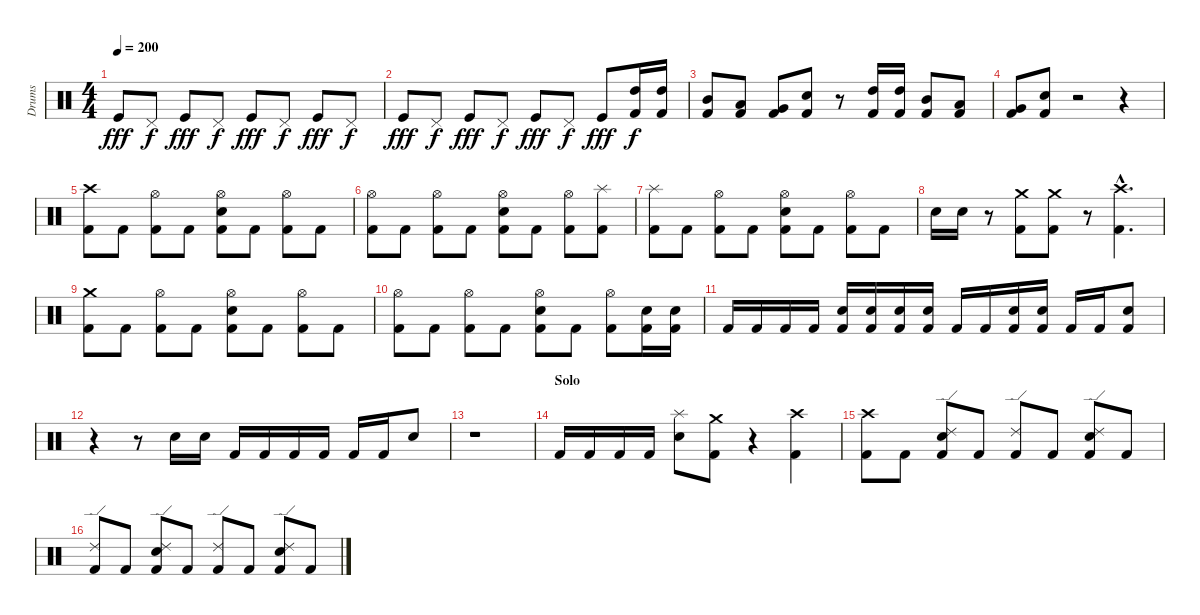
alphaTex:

\track ("Drums" "Drums") {instrument percussion}
\staff {score}
\articulation defaults
\ts (4 4)
\tempo 200
\clef neutral
\ks c "Kick (hit)".8{dy fff} "Pedal Hi-Hat (hit)".8{dy f} "Kick (hit)".8{dy fff} "Pedal Hi-Hat (hit)".8{dy f} "Kick (hit)".8{dy fff} "Pedal Hi-Hat (hit)".8{dy f} "Kick (hit)".8{dy fff} "Pedal Hi-Hat (hit)".8{dy f}
|
"Kick (hit)".8{dy fff} "Pedal Hi-Hat (hit)".8{dy f} "Kick (hit)".8{dy fff} "Pedal Hi-Hat (hit)".8{dy f} "Kick (hit)".8{dy fff} "Pedal Hi-Hat (hit)".8{dy f} "Kick (hit)".8{dy fff} ("Kick (hit) 2" "High Tom (hit)").16{dy f} ("Kick (hit) 2" "High Tom (hit)").16 |
("Kick (hit) 2" "Mid Tom (hit)").8 ("Kick (hit) 2" "Low Tom (hit)").8 ("Kick (hit) 2" "Very Low Tom (hit)").8 ("Kick (hit) 2" "Electric Snare (hit)").8 r.8 ("Kick (hit) 2" "High Tom (hit)").16 ("Kick (hit) 2" "High Tom (hit)").16 ("Kick (hit) 2" "Mid Tom (hit)").8 ("Kick (hit) 2" "Low Tom (hit)").8 |
("Kick (hit) 2" "Very Low Tom (hit)").8 ("Kick (hit) 2" "Electric Snare (hit)").8 r.2 r.4 |
\section ("" "")
("Kick (hit) 2" "Crash high (hit)").8 "Kick (hit) 2".8 ("Kick (hit) 2" "Hi-Hat (open)").8 "Kick (hit) 2".8 ("Kick (hit) 2" "Electric Snare (hit)" "Hi-Hat (open)").8 "Kick (hit) 2".8 ("Kick (hit) 2" "Hi-Hat (open)").8 "Kick (hit) 2".8 |
("Kick (hit) 2" "Hi-Hat (open)").8 "Kick (hit) 2".8 ("Kick (hit) 2" "Hi-Hat (open)").8 "Kick (hit) 2".8 ("Kick (hit) 2" "Electric Snare (hit)" "Hi-Hat (open)").8 "Kick (hit) 2".8 ("Kick (hit) 2" "Hi-Hat (open)").8 ("Kick (hit) 2" "Splash (hit)").8 |
("Kick (hit) 2" "Splash (hit)").8 "Kick (hit) 2".8 ("Kick (hit) 2" "Hi-Hat (open)").8 "Kick (hit) 2".8 ("Kick (hit) 2" "Electric Snare (hit)" "Hi-Hat (open)").8 "Kick (hit) 2".8 ("Kick (hit) 2" "Hi-Hat (open)").8 "Kick (hit) 2".8 |
"Electric Snare (hit)".16 "Electric Snare (hit)".16 r.8 ("Kick (hit) 2" "Crash medium (hit)").8 ("Kick (hit) 2" "Crash medium (hit)").8 r.8 ("Kick (hit) 2"{hac} "Crash high (hit)"{hac}).4{d} |
("Kick (hit) 2" "Crash medium (hit)").8 "Kick (hit) 2".8 ("Kick (hit) 2" "Hi-Hat (open)").8 "Kick (hit) 2".8 ("Kick (hit) 2" "Electric Snare (hit)" "Hi-Hat (open)").8 "Kick (hit) 2".8 ("Kick (hit) 2" "Hi-Hat (open)").8 "Kick (hit) 2".8 |
("Kick (hit) 2" "Hi-Hat (open)").8 "Kick (hit) 2".8 ("Kick (hit) 2" "Hi-Hat (open)").8 "Kick (hit) 2".8 ("Kick (hit) 2" "Electric Snare (hit)" "Hi-Hat (open)").8 "Kick (hit) 2".8 ("Kick (hit) 2" "Hi-Hat (open)").8 ("Kick (hit) 2" "Electric Snare (hit)").16 ("Kick (hit) 2" "Electric Snare (hit)").16 |
"Kick (hit) 2".16 "Kick (hit) 2".16 "Kick (hit) 2".16 "Kick (hit) 2".16 ("Kick (hit) 2" "Electric Snare (hit)").16 ("Kick (hit) 2" "Electric Snare (hit)").16 ("Kick (hit) 2" "Electric Snare (hit)").16 ("Kick (hit) 2" "Electric Snare (hit)").16 "Kick (hit) 2".16 "Kick (hit) 2".16 ("Kick (hit) 2" "Electric Snare (hit)").16 ("Kick (hit) 2" "Electric Snare (hit)").16 "Kick (hit) 2".16 "Kick (hit) 2".16 ("Kick (hit) 2" "Electric Snare (hit)").8 |
r.4 r.8 "Electric Snare (hit)".16 "Electric Snare (hit)".16 "Kick (hit) 2".16 "Kick (hit) 2".16 "Kick (hit) 2".16 "Kick (hit) 2".16 "Kick (hit) 2".16 "Kick (hit) 2".16 "Electric Snare (hit)".8 |
r.1 |
\section ("" "Solo")
"Kick (hit) 2".16 "Kick (hit) 2".16 "Kick (hit) 2".16 "Kick (hit) 2".16 ("Electric Snare (hit)" "Splash (hit)").8 ("Kick (hit) 2" "Crash medium (hit)").8 r.4 ("Kick (hit) 2" "Crash high (hit)").4 |
("Kick (hit) 2" "Crash high (hit)").8 "Kick (hit) 2".8 ("Kick (hit) 2" "Electric Snare (hit)" "Ride (edge) 2").8 "Kick (hit) 2".8 ("Kick (hit) 2" "Ride (edge) 2").8 "Kick (hit) 2".8 ("Kick (hit) 2" "Electric Snare (hit)" "Ride (edge) 2").8 "Kick (hit) 2".8 |
("Kick (hit) 2" "Ride (edge) 2").8 "Kick (hit) 2".8 ("Kick (hit) 2" "Electric Snare (hit)" "Ride (edge) 2").8 "Kick (hit) 2".8 ("Kick (hit) 2" "Ride (edge) 2").8 "Kick (hit) 2".8 ("Kick (hit) 2" "Electric Snare (hit)" "Ride (edge) 2").8 "Kick (hit) 2".8
